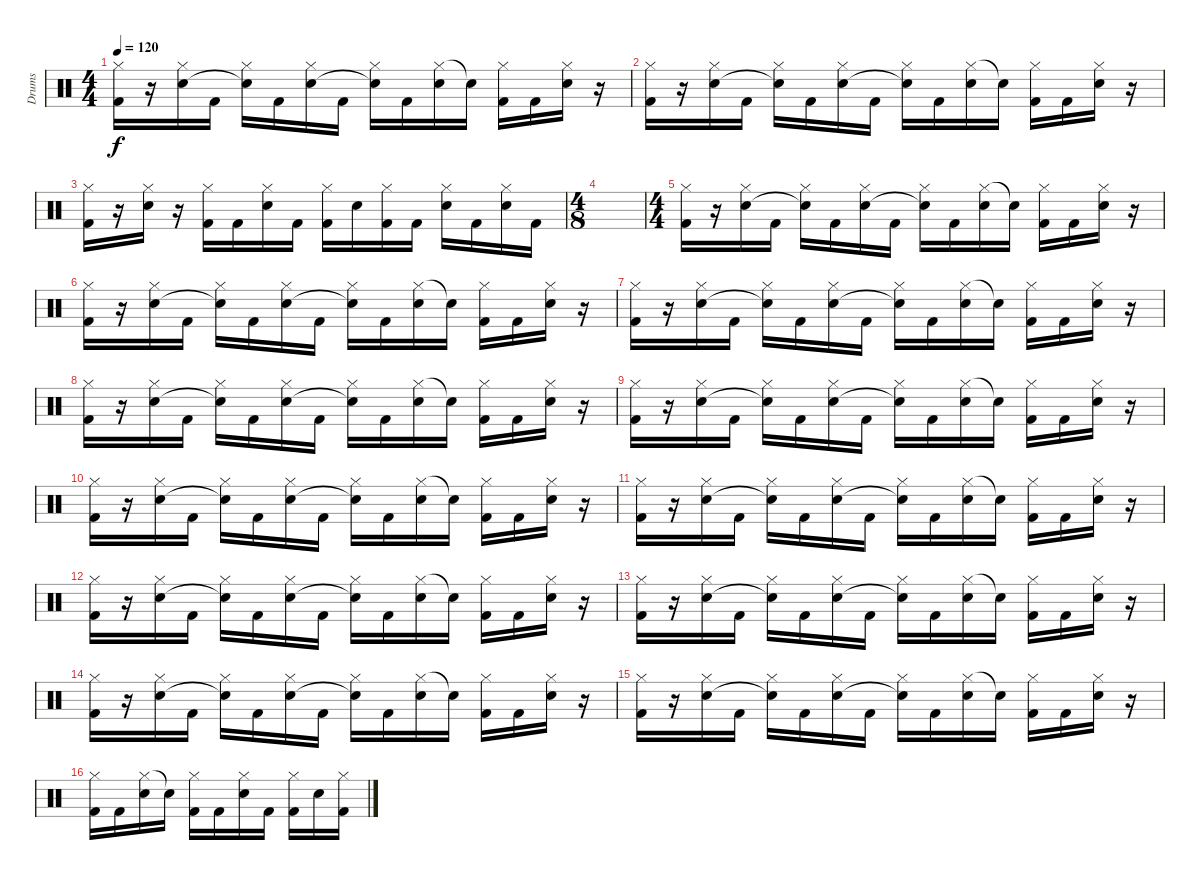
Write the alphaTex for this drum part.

\track ("Drums" "Drums") {instrument percussion}
\staff {score}
\articulation defaults
\ts (4 4)
\tempo 120
\clef neutral
\ks c
("Hi-Hat (closed)" "Kick (hit) 2").16{dy f} r.16 ("Hi-Hat (closed)" "Electric Snare (hit)").16 "Kick (hit) 2".16 ("Hi-Hat (closed)" "Snare (hit)"{t}).16 "Kick (hit) 2".16 ("Hi-Hat (closed)" "Electric Snare (hit)").16 "Kick (hit) 2".16 ("Hi-Hat (closed)" "Snare (hit)"{t}).16 "Kick (hit) 2".16 ("Hi-Hat (closed)" "Electric Snare (hit)").16 "Snare (hit)"{t}.16 ("Hi-Hat (closed)" "Kick (hit) 2").16 "Kick (hit) 2".16 ("Hi-Hat (closed)" "Electric Snare (hit)").16 r.16 |
("Hi-Hat (closed)" "Kick (hit) 2").16 r.16 ("Hi-Hat (closed)" "Electric Snare (hit)").16 "Kick (hit) 2".16 ("Hi-Hat (closed)" "Snare (hit)"{t}).16 "Kick (hit) 2".16 ("Hi-Hat (closed)" "Electric Snare (hit)").16 "Kick (hit) 2".16 ("Hi-Hat (closed)" "Snare (hit)"{t}).16 "Kick (hit) 2".16 ("Hi-Hat (closed)" "Electric Snare (hit)").16 "Snare (hit)"{t}.16 ("Hi-Hat (closed)" "Kick (hit) 2").16 "Kick (hit) 2".16 ("Hi-Hat (closed)" "Electric Snare (hit)").16 r.16 |
("Hi-Hat (closed)" "Kick (hit) 2").16 r.16 ("Hi-Hat (closed)" "Electric Snare (hit)").16 r.16 ("Hi-Hat (closed)" "Kick (hit) 2").16 "Kick (hit) 2".16 ("Hi-Hat (closed)" "Electric Snare (hit)").16 "Kick (hit) 2".16 ("Hi-Hat (closed)" "Kick (hit) 2").16 "Electric Snare (hit)".16 ("Hi-Hat (closed)" "Kick (hit) 2").16 "Kick (hit) 2".16 ("Hi-Hat (closed)" "Electric Snare (hit)").16 "Kick (hit) 2".16 ("Hi-Hat (closed)" "Electric Snare (hit)").16 "Kick (hit) 2".16 |
\ts (4 8)
|
\ts (4 4)
("Hi-Hat (closed)" "Kick (hit) 2").16 r.16 ("Hi-Hat (closed)" "Electric Snare (hit)").16 "Kick (hit) 2".16 ("Hi-Hat (closed)" "Snare (hit)"{t}).16 "Kick (hit) 2".16 ("Hi-Hat (closed)" "Electric Snare (hit)").16 "Kick (hit) 2".16 ("Hi-Hat (closed)" "Snare (hit)"{t}).16 "Kick (hit) 2".16 ("Hi-Hat (closed)" "Electric Snare (hit)").16 "Snare (hit)"{t}.16 ("Hi-Hat (closed)" "Kick (hit) 2").16 "Kick (hit) 2".16 ("Hi-Hat (closed)" "Electric Snare (hit)").16 r.16 |
("Hi-Hat (closed)" "Kick (hit) 2").16 r.16 ("Hi-Hat (closed)" "Electric Snare (hit)").16 "Kick (hit) 2".16 ("Hi-Hat (closed)" "Snare (hit)"{t}).16 "Kick (hit) 2".16 ("Hi-Hat (closed)" "Electric Snare (hit)").16 "Kick (hit) 2".16 ("Hi-Hat (closed)" "Snare (hit)"{t}).16 "Kick (hit) 2".16 ("Hi-Hat (closed)" "Electric Snare (hit)").16 "Snare (hit)"{t}.16 ("Hi-Hat (closed)" "Kick (hit) 2").16 "Kick (hit) 2".16 ("Hi-Hat (closed)" "Electric Snare (hit)").16 r.16 |
("Hi-Hat (closed)" "Kick (hit) 2").16 r.16 ("Hi-Hat (closed)" "Electric Snare (hit)").16 "Kick (hit) 2".16 ("Hi-Hat (closed)" "Snare (hit)"{t}).16 "Kick (hit) 2".16 ("Hi-Hat (closed)" "Electric Snare (hit)").16 "Kick (hit) 2".16 ("Hi-Hat (closed)" "Snare (hit)"{t}).16 "Kick (hit) 2".16 ("Hi-Hat (closed)" "Electric Snare (hit)").16 "Snare (hit)"{t}.16 ("Hi-Hat (closed)" "Kick (hit) 2").16 "Kick (hit) 2".16 ("Hi-Hat (closed)" "Electric Snare (hit)").16 r.16 |
("Hi-Hat (closed)" "Kick (hit) 2").16 r.16 ("Hi-Hat (closed)" "Electric Snare (hit)").16 "Kick (hit) 2".16 ("Hi-Hat (closed)" "Snare (hit)"{t}).16 "Kick (hit) 2".16 ("Hi-Hat (closed)" "Electric Snare (hit)").16 "Kick (hit) 2".16 ("Hi-Hat (closed)" "Snare (hit)"{t}).16 "Kick (hit) 2".16 ("Hi-Hat (closed)" "Electric Snare (hit)").16 "Snare (hit)"{t}.16 ("Hi-Hat (closed)" "Kick (hit) 2").16 "Kick (hit) 2".16 ("Hi-Hat (closed)" "Electric Snare (hit)").16 r.16 |
("Hi-Hat (closed)" "Kick (hit) 2").16 r.16 ("Hi-Hat (closed)" "Electric Snare (hit)").16 "Kick (hit) 2".16 ("Hi-Hat (closed)" "Snare (hit)"{t}).16 "Kick (hit) 2".16 ("Hi-Hat (closed)" "Electric Snare (hit)").16 "Kick (hit) 2".16 ("Hi-Hat (closed)" "Snare (hit)"{t}).16 "Kick (hit) 2".16 ("Hi-Hat (closed)" "Electric Snare (hit)").16 "Snare (hit)"{t}.16 ("Hi-Hat (closed)" "Kick (hit) 2").16 "Kick (hit) 2".16 ("Hi-Hat (closed)" "Electric Snare (hit)").16 r.16 |
("Hi-Hat (closed)" "Kick (hit) 2").16 r.16 ("Hi-Hat (closed)" "Electric Snare (hit)").16 "Kick (hit) 2".16 ("Hi-Hat (closed)" "Snare (hit)"{t}).16 "Kick (hit) 2".16 ("Hi-Hat (closed)" "Electric Snare (hit)").16 "Kick (hit) 2".16 ("Hi-Hat (closed)" "Snare (hit)"{t}).16 "Kick (hit) 2".16 ("Hi-Hat (closed)" "Electric Snare (hit)").16 "Snare (hit)"{t}.16 ("Hi-Hat (closed)" "Kick (hit) 2").16 "Kick (hit) 2".16 ("Hi-Hat (closed)" "Electric Snare (hit)").16 r.16 |
("Hi-Hat (closed)" "Kick (hit) 2").16 r.16 ("Hi-Hat (closed)" "Electric Snare (hit)").16 "Kick (hit) 2".16 ("Hi-Hat (closed)" "Snare (hit)"{t}).16 "Kick (hit) 2".16 ("Hi-Hat (closed)" "Electric Snare (hit)").16 "Kick (hit) 2".16 ("Hi-Hat (closed)" "Snare (hit)"{t}).16 "Kick (hit) 2".16 ("Hi-Hat (closed)" "Electric Snare (hit)").16 "Snare (hit)"{t}.16 ("Hi-Hat (closed)" "Kick (hit) 2").16 "Kick (hit) 2".16 ("Hi-Hat (closed)" "Electric Snare (hit)").16 r.16 |
("Hi-Hat (closed)" "Kick (hit) 2").16 r.16 ("Hi-Hat (closed)" "Electric Snare (hit)").16 "Kick (hit) 2".16 ("Hi-Hat (closed)" "Snare (hit)"{t}).16 "Kick (hit) 2".16 ("Hi-Hat (closed)" "Electric Snare (hit)").16 "Kick (hit) 2".16 ("Hi-Hat (closed)" "Snare (hit)"{t}).16 "Kick (hit) 2".16 ("Hi-Hat (closed)" "Electric Snare (hit)").16 "Snare (hit)"{t}.16 ("Hi-Hat (closed)" "Kick (hit) 2").16 "Kick (hit) 2".16 ("Hi-Hat (closed)" "Electric Snare (hit)").16 r.16 |
("Hi-Hat (closed)" "Kick (hit) 2").16 r.16 ("Hi-Hat (closed)" "Electric Snare (hit)").16 "Kick (hit) 2".16 ("Hi-Hat (closed)" "Snare (hit)"{t}).16 "Kick (hit) 2".16 ("Hi-Hat (closed)" "Electric Snare (hit)").16 "Kick (hit) 2".16 ("Hi-Hat (closed)" "Snare (hit)"{t}).16 "Kick (hit) 2".16 ("Hi-Hat (closed)" "Electric Snare (hit)").16 "Snare (hit)"{t}.16 ("Hi-Hat (closed)" "Kick (hit) 2").16 "Kick (hit) 2".16 ("Hi-Hat (closed)" "Electric Snare (hit)").16 r.16 |
("Hi-Hat (closed)" "Kick (hit) 2").16 r.16 ("Hi-Hat (closed)" "Electric Snare (hit)").16 "Kick (hit) 2".16 ("Hi-Hat (closed)" "Snare (hit)"{t}).16 "Kick (hit) 2".16 ("Hi-Hat (closed)" "Electric Snare (hit)").16 "Kick (hit) 2".16 ("Hi-Hat (closed)" "Snare (hit)"{t}).16 "Kick (hit) 2".16 ("Hi-Hat (closed)" "Electric Snare (hit)").16 "Snare (hit)"{t}.16 ("Hi-Hat (closed)" "Kick (hit) 2").16 "Kick (hit) 2".16 ("Hi-Hat (closed)" "Electric Snare (hit)").16 r.16 |
("Hi-Hat (closed)" "Kick (hit) 2").16 r.16 ("Hi-Hat (closed)" "Electric Snare (hit)").16 "Kick (hit) 2".16 ("Hi-Hat (closed)" "Snare (hit)"{t}).16 "Kick (hit) 2".16 ("Hi-Hat (closed)" "Electric Snare (hit)").16 "Kick (hit) 2".16 ("Hi-Hat (closed)" "Snare (hit)"{t}).16 "Kick (hit) 2".16 ("Hi-Hat (closed)" "Electric Snare (hit)").16 "Snare (hit)"{t}.16 ("Hi-Hat (closed)" "Kick (hit) 2").16 "Kick (hit) 2".16 ("Hi-Hat (closed)" "Electric Snare (hit)").16 r.16 |
("Hi-Hat (closed)" "Kick (hit) 2").16 "Kick (hit) 2".16 ("Hi-Hat (closed)" "Electric Snare (hit)").16 "Snare (hit)"{t}.16 ("Hi-Hat (closed)" "Kick (hit) 2").16 "Kick (hit) 2".16 ("Hi-Hat (closed)" "Electric Snare (hit)").16 "Kick (hit) 2".16 ("Hi-Hat (closed)" "Kick (hit) 2").16 "Electric Snare (hit)".16 ("Hi-Hat (closed)" "Kick (hit) 2").16
